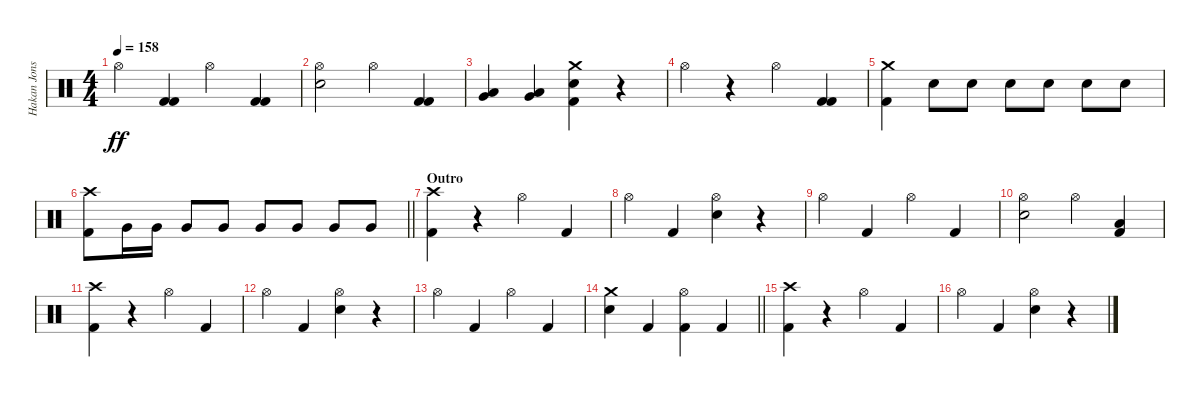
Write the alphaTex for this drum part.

\track ("Hakan Jonsson" "Hakan Jons") {instrument percussion}
\staff {score}
\articulation defaults
\ts (4 4)
\tempo 158
\clef neutral
\ks c "Hi-Hat (open)".4{dy ff}
("Kick (hit) 2" "Kick (hit) 2").4 "Hi-Hat (open)".4 ("Kick (hit) 2" "Kick (hit) 2").4 |
("Hi-Hat (open)" "Electric Snare (hit)").2 "Hi-Hat (open)".4 ("Kick (hit) 2" "Kick (hit) 2").4 |
("Very Low Tom (hit)" "Low Floor Tom (hit)").4 ("Very Low Tom (hit)" "Low Floor Tom (hit)").4 ("Crash medium (hit)" "Electric Snare (hit)" "Kick (hit) 2").4 r.4 |
"Hi-Hat (open)".4 r.4 "Hi-Hat (open)".4 ("Kick (hit) 2" "Kick (hit) 2").4 |
("Crash medium (hit)" "Kick (hit) 2").4 "Electric Snare (hit)".8 "Electric Snare (hit)".8 "Electric Snare (hit)".8 "Electric Snare (hit)".8 "Electric Snare (hit)".8 "Electric Snare (hit)".8 |
\barLineRight lightlight
("Crash high (hit)" "Kick (hit) 2").8 "Very Low Tom (hit)".16 "Very Low Tom (hit)".16 "Very Low Tom (hit)".8 "Very Low Tom (hit)".8 "Very Low Tom (hit)".8 "Very Low Tom (hit)".8 "Very Low Tom (hit)".8 "Very Low Tom (hit)".8 |
\section ("" "Outro")
("Crash high (hit)" "Kick (hit) 2").4 r.4 "Hi-Hat (open)".4 "Kick (hit) 2".4 |
"Hi-Hat (open)".4 "Kick (hit) 2".4 ("Hi-Hat (open)" "Electric Snare (hit)").4 r.4 |
"Hi-Hat (open)".4 "Kick (hit) 2".4 "Hi-Hat (open)".4 "Kick (hit) 2".4 |
("Hi-Hat (open)" "Electric Snare (hit)").2 "Hi-Hat (open)".4 ("Low Floor Tom (hit)" "Kick (hit) 2").4 |
("Crash high (hit)" "Kick (hit) 2").4 r.4 "Hi-Hat (open)".4 "Kick (hit) 2".4 |
"Hi-Hat (open)".4 "Kick (hit) 2".4 ("Hi-Hat (open)" "Electric Snare (hit)").4 r.4 |
"Hi-Hat (open)".4 "Kick (hit) 2".4 "Hi-Hat (open)".4 "Kick (hit) 2".4 |
\barLineRight lightlight
("Crash medium (hit)" "Electric Snare (hit)").4 "Kick (hit) 2".4 ("Hi-Hat (open)" "Kick (hit) 2").4 "Kick (hit) 2".4 |
("Crash high (hit)" "Kick (hit) 2").4 r.4 "Hi-Hat (open)".4 "Kick (hit) 2".4 |
"Hi-Hat (open)".4 "Kick (hit) 2".4 ("Hi-Hat (open)" "Electric Snare (hit)").4 r.4
